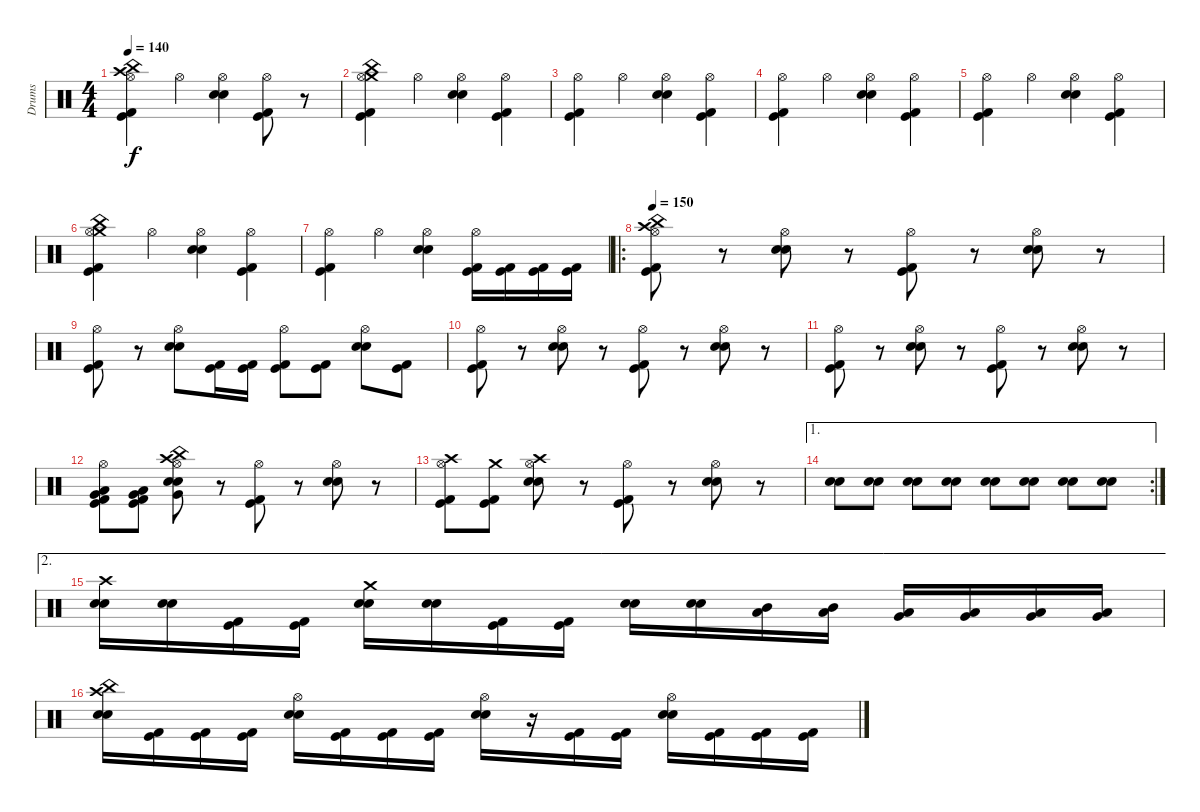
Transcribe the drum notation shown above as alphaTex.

\track ("Drums" "Drums") {instrument percussion}
\staff {score}
\articulation defaults
\ts (4 4)
\tempo 140
\clef neutral
\ks c
("Crash high (hit)" "Hi-Hat (open)" "China (hit)" "Kick (hit) 2" "Kick (hit)").4{dy f} "Hi-Hat (open)".4 ("Hi-Hat (open)" "Electric Snare (hit)" "Snare (hit) 2").4 ("Hi-Hat (open)" "Kick (hit) 2" "Kick (hit)").8 r.8 |
("Crash medium (hit)" "Hi-Hat (open)" "China (hit)" "Kick (hit) 2" "Kick (hit)").4 "Hi-Hat (open)".4 ("Hi-Hat (open)" "Snare (hit) 2" "Electric Snare (hit)").4 ("Hi-Hat (open)" "Kick (hit) 2" "Kick (hit)").4 |
("Hi-Hat (open)" "Kick (hit) 2" "Kick (hit)").4 "Hi-Hat (open)".4 ("Hi-Hat (open)" "Electric Snare (hit)" "Snare (hit) 2").4 ("Hi-Hat (open)" "Kick (hit)" "Kick (hit) 2").4 |
("Hi-Hat (open)" "Kick (hit) 2" "Kick (hit)").4 "Hi-Hat (open)".4 ("Hi-Hat (open)" "Electric Snare (hit)" "Snare (hit) 2").4 ("Hi-Hat (open)" "Kick (hit)" "Kick (hit) 2").4 |
("Hi-Hat (open)" "Kick (hit) 2" "Kick (hit)").4 "Hi-Hat (open)".4 ("Hi-Hat (open)" "Electric Snare (hit)" "Snare (hit) 2").4 ("Hi-Hat (open)" "Kick (hit)" "Kick (hit) 2").4 |
("Crash medium (hit)" "Hi-Hat (open)" "China (hit)" "Kick (hit) 2" "Kick (hit)").4 "Hi-Hat (open)".4 ("Hi-Hat (open)" "Snare (hit) 2" "Electric Snare (hit)").4 ("Hi-Hat (open)" "Kick (hit) 2" "Kick (hit)").4 |
("Hi-Hat (open)" "Kick (hit) 2" "Kick (hit)").4 "Hi-Hat (open)".4 ("Hi-Hat (open)" "Electric Snare (hit)" "Snare (hit) 2").4 ("Hi-Hat (open)" "Kick (hit)" "Kick (hit) 2").16 ("Kick (hit) 2" "Kick (hit)").16 ("Kick (hit) 2" "Kick (hit)").16 ("Kick (hit) 2" "Kick (hit)").16 |
\ro
\tempo 150
("Crash high (hit)" "Hi-Hat (open)" "China (hit)" "Kick (hit) 2" "Kick (hit)").8 r.8 ("Hi-Hat (open)" "Snare (hit) 2" "Electric Snare (hit)").8 r.8 ("Hi-Hat (open)" "Kick (hit) 2" "Kick (hit)").8 r.8 ("Hi-Hat (open)" "Electric Snare (hit)" "Snare (hit) 2").8 r.8 |
("Hi-Hat (open)" "Kick (hit) 2" "Kick (hit)").8 r.8 ("Hi-Hat (open)" "Snare (hit) 2" "Electric Snare (hit)").8 ("Kick (hit) 2" "Kick (hit)").16 ("Kick (hit) 2" "Kick (hit)").16 ("Hi-Hat (open)" "Kick (hit) 2" "Kick (hit)").8 ("Kick (hit) 2" "Kick (hit)").8 ("Hi-Hat (open)" "Electric Snare (hit)" "Snare (hit) 2").8 ("Kick (hit) 2" "Kick (hit)").8 |
("Hi-Hat (open)" "Kick (hit) 2" "Kick (hit)").8 r.8 ("Hi-Hat (open)" "Snare (hit) 2" "Electric Snare (hit)").8 r.8 ("Hi-Hat (open)" "Kick (hit) 2" "Kick (hit)").8 r.8 ("Hi-Hat (open)" "Electric Snare (hit)" "Snare (hit) 2").8 r.8 |
("Hi-Hat (open)" "Kick (hit) 2" "Kick (hit)").8 r.8 ("Hi-Hat (open)" "Snare (hit) 2" "Electric Snare (hit)").8 r.8 ("Hi-Hat (open)" "Kick (hit) 2" "Kick (hit)").8 r.8 ("Hi-Hat (open)" "Electric Snare (hit)" "Snare (hit) 2").8 r.8 |
("Hi-Hat (open)" "Very Low Tom (hit)" "Low Tom (hit)" "Kick (hit) 2" "Kick (hit)").8 ("Low Floor Tom (hit)" "Very Low Tom (hit)" "Kick (hit) 2" "Kick (hit)").8 ("China (hit)" "Hi-Hat (open)" "Snare (hit) 2" "Electric Snare (hit)" "Very Low Tom (hit)" "Crash high (hit)").8 r.8 ("Hi-Hat (open)" "Kick (hit) 2" "Kick (hit)").8 r.8 ("Hi-Hat (open)" "Electric Snare (hit)" "Snare (hit) 2").8 r.8 |
("Crash high (hit)" "Hi-Hat (open)" "Kick (hit) 2" "Kick (hit)").8 ("Crash medium (hit)" "Kick (hit) 2" "Kick (hit)").8 ("Crash high (hit)" "Hi-Hat (open)" "Snare (hit) 2" "Electric Snare (hit)").8 r.8 ("Hi-Hat (open)" "Kick (hit) 2" "Kick (hit)").8 r.8 ("Hi-Hat (open)" "Electric Snare (hit)" "Snare (hit) 2").8 r.8 |
\ae 1
\rc 2
("Electric Snare (hit)" "Snare (hit) 2").8 ("Electric Snare (hit)" "Snare (hit) 2").8 ("Electric Snare (hit)" "Snare (hit) 2").8 ("Electric Snare (hit)" "Snare (hit) 2").8 ("Electric Snare (hit)" "Snare (hit) 2").8 ("Electric Snare (hit)" "Snare (hit) 2").8 ("Electric Snare (hit)" "Snare (hit) 2").8 ("Electric Snare (hit)" "Snare (hit) 2").8 |
\ae 2
("Crash high (hit)" "Snare (hit) 2" "Electric Snare (hit)").16 ("Snare (hit) 2" "Electric Snare (hit)").16 ("Kick (hit)" "Kick (hit) 2").16 ("Kick (hit)" "Kick (hit) 2").16 ("Crash medium (hit)" "Snare (hit) 2" "Electric Snare (hit)").16 ("Snare (hit) 2" "Electric Snare (hit)").16 ("Kick (hit)" "Kick (hit) 2").16 ("Kick (hit)" "Kick (hit) 2").16 ("Snare (hit) 2" "Electric Snare (hit)").16 ("Snare (hit) 2" "Electric Snare (hit)").16 ("Low Tom (hit)" "Mid Tom (hit)").16 ("Low Tom (hit)" "Mid Tom (hit)").16 ("Very Low Tom (hit)" "Low Tom (hit)").16 ("Very Low Tom (hit)" "Low Tom (hit)").16 ("Low Floor Tom (hit)" "Very Low Tom (hit)").16 ("Low Floor Tom (hit)" "Very Low Tom (hit)").16 |
("Crash high (hit)" "China (hit)" "Snare (hit) 2" "Electric Snare (hit)").16 ("Kick (hit)" "Kick (hit) 2").16 ("Kick (hit)" "Kick (hit) 2").16 ("Kick (hit)" "Kick (hit) 2").16 ("Hi-Hat (open)" "Snare (hit) 2" "Electric Snare (hit)").16 ("Kick (hit)" "Kick (hit) 2").16 ("Kick (hit)" "Kick (hit) 2").16 ("Kick (hit)" "Kick (hit) 2").16 ("Hi-Hat (open)" "Snare (hit) 2" "Electric Snare (hit)").16 r.16 ("Kick (hit)" "Kick (hit) 2").16 ("Kick (hit)" "Kick (hit) 2").16 ("Hi-Hat (open)" "Snare (hit) 2" "Electric Snare (hit)").16 ("Kick (hit)" "Kick (hit) 2").16 ("Kick (hit)" "Kick (hit) 2").16 ("Kick (hit)" "Kick (hit) 2").16
